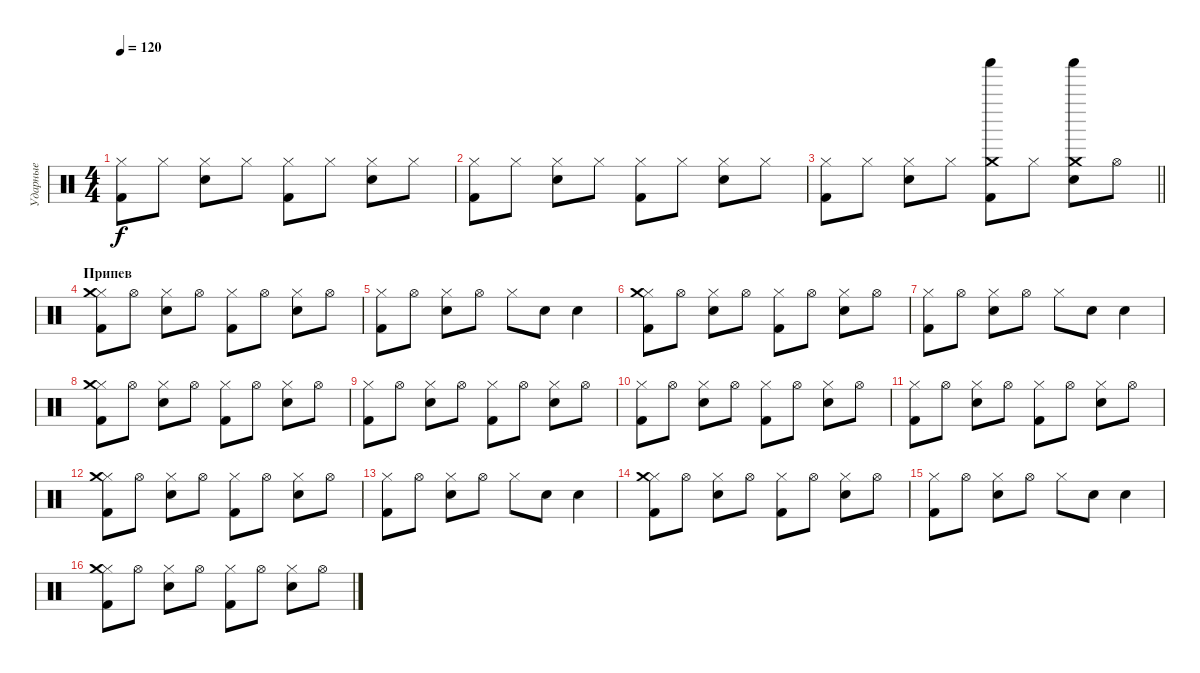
\track ("Ударные" "Ударные") {instrument percussion}
\staff {score}
\articulation defaults
\ts (4 4)
\tempo 120
\clef neutral
\ks c
("Hi-Hat (closed)" "Kick (hit) 2").8{dy f} "Hi-Hat (closed)".8 ("Hi-Hat (closed)" "Snare (hit) 2").8 "Hi-Hat (closed)".8 ("Hi-Hat (closed)" "Kick (hit) 2").8 "Hi-Hat (closed)".8 ("Hi-Hat (closed)" "Snare (hit) 2").8 "Hi-Hat (closed)".8 |
("Hi-Hat (closed)" "Kick (hit) 2").8 "Hi-Hat (closed)".8 ("Hi-Hat (closed)" "Snare (hit) 2").8 "Hi-Hat (closed)".8 ("Hi-Hat (closed)" "Kick (hit) 2").8 "Hi-Hat (closed)".8 ("Hi-Hat (closed)" "Snare (hit) 2").8 "Hi-Hat (closed)".8 |
\barLineRight lightlight
("Hi-Hat (closed)" "Kick (hit) 2").8 "Hi-Hat (closed)".8 ("Hi-Hat (closed)" "Snare (hit) 2").8 "Hi-Hat (closed)".8 ("Shaker (hit)" "Kick (hit) 2" "Crash medium (hit)").8 "Hi-Hat (closed)".8 ("Shaker (hit)" "Snare (hit) 2" "Crash medium (hit)").8 "Hi-Hat (open)".8 |
\section ("" "Припев")
("Hi-Hat (closed)" "Kick (hit) 2" "Crash medium (hit)").8 "Hi-Hat (open)".8 ("Hi-Hat (closed)" "Snare (hit) 2").8 "Hi-Hat (open)".8 ("Hi-Hat (closed)" "Kick (hit) 2").8 "Hi-Hat (open)".8 ("Hi-Hat (closed)" "Snare (hit) 2").8 "Hi-Hat (open)".8 |
("Hi-Hat (closed)" "Kick (hit) 2").8 "Hi-Hat (open)".8 ("Hi-Hat (closed)" "Snare (hit) 2").8 "Hi-Hat (open)".8 "Hi-Hat (closed)".8 "Hand Clap (hit)".8 "Hand Clap (hit)".4 |
("Hi-Hat (closed)" "Kick (hit) 2" "Crash medium (hit)").8 "Hi-Hat (open)".8 ("Hi-Hat (closed)" "Snare (hit) 2").8 "Hi-Hat (open)".8 ("Hi-Hat (closed)" "Kick (hit) 2").8 "Hi-Hat (open)".8 ("Hi-Hat (closed)" "Snare (hit) 2").8 "Hi-Hat (open)".8 |
("Hi-Hat (closed)" "Kick (hit) 2").8 "Hi-Hat (open)".8 ("Hi-Hat (closed)" "Snare (hit) 2").8 "Hi-Hat (open)".8 "Hi-Hat (closed)".8 "Hand Clap (hit)".8 "Hand Clap (hit)".4 |
("Hi-Hat (closed)" "Kick (hit) 2" "Crash medium (hit)").8 "Hi-Hat (open)".8 ("Hi-Hat (closed)" "Snare (hit) 2").8 "Hi-Hat (open)".8 ("Hi-Hat (closed)" "Kick (hit) 2").8 "Hi-Hat (open)".8 ("Hi-Hat (closed)" "Snare (hit) 2").8 "Hi-Hat (open)".8 |
("Hi-Hat (closed)" "Kick (hit) 2").8 "Hi-Hat (open)".8 ("Hi-Hat (closed)" "Snare (hit) 2").8 "Hi-Hat (open)".8 ("Hi-Hat (closed)" "Kick (hit) 2").8 "Hi-Hat (open)".8 ("Hi-Hat (closed)" "Snare (hit) 2").8 "Hi-Hat (open)".8 |
("Hi-Hat (closed)" "Kick (hit) 2").8 "Hi-Hat (open)".8 ("Hi-Hat (closed)" "Snare (hit) 2").8 "Hi-Hat (open)".8 ("Hi-Hat (closed)" "Kick (hit) 2").8 "Hi-Hat (open)".8 ("Hi-Hat (closed)" "Snare (hit) 2").8 "Hi-Hat (open)".8 |
("Hi-Hat (closed)" "Kick (hit) 2").8 "Hi-Hat (open)".8 ("Hi-Hat (closed)" "Snare (hit) 2").8 "Hi-Hat (open)".8 ("Hi-Hat (closed)" "Kick (hit) 2").8 "Hi-Hat (open)".8 ("Hi-Hat (closed)" "Snare (hit) 2").8 "Hi-Hat (open)".8 |
("Hi-Hat (closed)" "Kick (hit) 2" "Crash medium (hit)").8 "Hi-Hat (open)".8 ("Hi-Hat (closed)" "Snare (hit) 2").8 "Hi-Hat (open)".8 ("Hi-Hat (closed)" "Kick (hit) 2").8 "Hi-Hat (open)".8 ("Hi-Hat (closed)" "Snare (hit) 2").8 "Hi-Hat (open)".8 |
("Hi-Hat (closed)" "Kick (hit) 2").8 "Hi-Hat (open)".8 ("Hi-Hat (closed)" "Snare (hit) 2").8 "Hi-Hat (open)".8 "Hi-Hat (closed)".8 "Hand Clap (hit)".8 "Hand Clap (hit)".4 |
("Hi-Hat (closed)" "Kick (hit) 2" "Crash medium (hit)").8 "Hi-Hat (open)".8 ("Hi-Hat (closed)" "Snare (hit) 2").8 "Hi-Hat (open)".8 ("Hi-Hat (closed)" "Kick (hit) 2").8 "Hi-Hat (open)".8 ("Hi-Hat (closed)" "Snare (hit) 2").8 "Hi-Hat (open)".8 |
("Hi-Hat (closed)" "Kick (hit) 2").8 "Hi-Hat (open)".8 ("Hi-Hat (closed)" "Snare (hit) 2").8 "Hi-Hat (open)".8 "Hi-Hat (closed)".8 "Hand Clap (hit)".8 "Hand Clap (hit)".4 |
("Hi-Hat (closed)" "Kick (hit) 2" "Crash medium (hit)").8 "Hi-Hat (open)".8 ("Hi-Hat (closed)" "Snare (hit) 2").8 "Hi-Hat (open)".8 ("Hi-Hat (closed)" "Kick (hit) 2").8 "Hi-Hat (open)".8 ("Hi-Hat (closed)" "Snare (hit) 2").8 "Hi-Hat (open)".8
